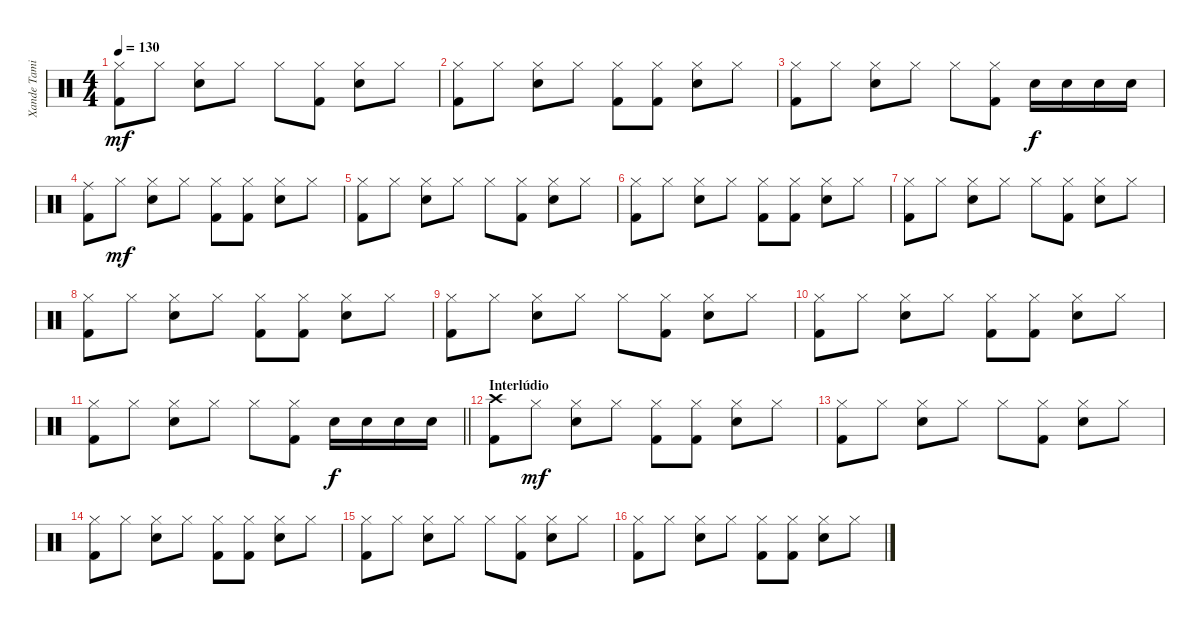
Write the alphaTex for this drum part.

\track ("Xande Tamietti" "Xande Tami") {instrument percussion}
\staff {score}
\articulation defaults
\ts (4 4)
\tempo 130
\clef neutral
\ks c
("Hi-Hat (closed)" "Kick (hit) 2").8{dy mf} "Hi-Hat (closed)".8 ("Hi-Hat (closed)" "Electric Snare (hit)").8 "Hi-Hat (closed)".8 "Hi-Hat (closed)".8 ("Hi-Hat (closed)" "Kick (hit) 2").8 ("Hi-Hat (closed)" "Electric Snare (hit)").8 "Hi-Hat (closed)".8 |
("Hi-Hat (closed)" "Kick (hit) 2").8 "Hi-Hat (closed)".8 ("Hi-Hat (closed)" "Electric Snare (hit)").8 "Hi-Hat (closed)".8 ("Hi-Hat (closed)" "Kick (hit) 2").8 ("Hi-Hat (closed)" "Kick (hit) 2").8 ("Hi-Hat (closed)" "Electric Snare (hit)").8 "Hi-Hat (closed)".8 |
("Hi-Hat (closed)" "Kick (hit) 2").8 "Hi-Hat (closed)".8 ("Hi-Hat (closed)" "Electric Snare (hit)").8 "Hi-Hat (closed)".8 "Hi-Hat (closed)".8 ("Hi-Hat (closed)" "Kick (hit) 2").8 "Electric Snare (hit)".16{dy f} "Electric Snare (hit)".16 "Electric Snare (hit)".16 "Electric Snare (hit)".16 |
("Ride (middle)" "Kick (hit) 2").8 "Hi-Hat (closed)".8{dy mf} ("Hi-Hat (closed)" "Electric Snare (hit)").8 "Hi-Hat (closed)".8 ("Hi-Hat (closed)" "Kick (hit) 2").8 ("Hi-Hat (closed)" "Kick (hit) 2").8 ("Hi-Hat (closed)" "Electric Snare (hit)").8 "Hi-Hat (closed)".8 |
("Hi-Hat (closed)" "Kick (hit) 2").8 "Hi-Hat (closed)".8 ("Hi-Hat (closed)" "Electric Snare (hit)").8 "Hi-Hat (closed)".8 "Hi-Hat (closed)".8 ("Hi-Hat (closed)" "Kick (hit) 2").8 ("Hi-Hat (closed)" "Electric Snare (hit)").8 "Hi-Hat (closed)".8 |
("Hi-Hat (closed)" "Kick (hit) 2").8 "Hi-Hat (closed)".8 ("Hi-Hat (closed)" "Electric Snare (hit)").8 "Hi-Hat (closed)".8 ("Hi-Hat (closed)" "Kick (hit) 2").8 ("Hi-Hat (closed)" "Kick (hit) 2").8 ("Hi-Hat (closed)" "Electric Snare (hit)").8 "Hi-Hat (closed)".8 |
("Hi-Hat (closed)" "Kick (hit) 2").8 "Hi-Hat (closed)".8 ("Hi-Hat (closed)" "Electric Snare (hit)").8 "Hi-Hat (closed)".8 "Hi-Hat (closed)".8 ("Hi-Hat (closed)" "Kick (hit) 2").8 ("Hi-Hat (closed)" "Electric Snare (hit)").8 "Hi-Hat (closed)".8 |
("Hi-Hat (closed)" "Kick (hit) 2").8 "Hi-Hat (closed)".8 ("Hi-Hat (closed)" "Electric Snare (hit)").8 "Hi-Hat (closed)".8 ("Hi-Hat (closed)" "Kick (hit) 2").8 ("Hi-Hat (closed)" "Kick (hit) 2").8 ("Hi-Hat (closed)" "Electric Snare (hit)").8 "Hi-Hat (closed)".8 |
("Hi-Hat (closed)" "Kick (hit) 2").8 "Hi-Hat (closed)".8 ("Hi-Hat (closed)" "Electric Snare (hit)").8 "Hi-Hat (closed)".8 "Hi-Hat (closed)".8 ("Hi-Hat (closed)" "Kick (hit) 2").8 ("Hi-Hat (closed)" "Electric Snare (hit)").8 "Hi-Hat (closed)".8 |
("Hi-Hat (closed)" "Kick (hit) 2").8 "Hi-Hat (closed)".8 ("Hi-Hat (closed)" "Electric Snare (hit)").8 "Hi-Hat (closed)".8 ("Hi-Hat (closed)" "Kick (hit) 2").8 ("Hi-Hat (closed)" "Kick (hit) 2").8 ("Hi-Hat (closed)" "Electric Snare (hit)").8 "Hi-Hat (closed)".8 |
\barLineRight lightlight
("Hi-Hat (closed)" "Kick (hit) 2").8 "Hi-Hat (closed)".8 ("Hi-Hat (closed)" "Electric Snare (hit)").8 "Hi-Hat (closed)".8 "Hi-Hat (closed)".8 ("Hi-Hat (closed)" "Kick (hit) 2").8 "Electric Snare (hit)".16{dy f} "Electric Snare (hit)".16 "Electric Snare (hit)".16 "Electric Snare (hit)".16 |
\section ("" "Interlúdio")
("Crash high (hit)" "Kick (hit) 2").8 "Hi-Hat (closed)".8{dy mf} ("Hi-Hat (closed)" "Electric Snare (hit)").8 "Hi-Hat (closed)".8 ("Hi-Hat (closed)" "Kick (hit) 2").8 ("Hi-Hat (closed)" "Kick (hit) 2").8 ("Hi-Hat (closed)" "Electric Snare (hit)").8 "Hi-Hat (closed)".8 |
("Hi-Hat (closed)" "Kick (hit) 2").8 "Hi-Hat (closed)".8 ("Hi-Hat (closed)" "Electric Snare (hit)").8 "Hi-Hat (closed)".8 "Hi-Hat (closed)".8 ("Hi-Hat (closed)" "Kick (hit) 2").8 ("Hi-Hat (closed)" "Electric Snare (hit)").8 "Hi-Hat (closed)".8 |
("Hi-Hat (closed)" "Kick (hit) 2").8 "Hi-Hat (closed)".8 ("Hi-Hat (closed)" "Electric Snare (hit)").8 "Hi-Hat (closed)".8 ("Hi-Hat (closed)" "Kick (hit) 2").8 ("Hi-Hat (closed)" "Kick (hit) 2").8 ("Hi-Hat (closed)" "Electric Snare (hit)").8 "Hi-Hat (closed)".8 |
("Hi-Hat (closed)" "Kick (hit) 2").8 "Hi-Hat (closed)".8 ("Hi-Hat (closed)" "Electric Snare (hit)").8 "Hi-Hat (closed)".8 "Hi-Hat (closed)".8 ("Hi-Hat (closed)" "Kick (hit) 2").8 ("Hi-Hat (closed)" "Electric Snare (hit)").8 "Hi-Hat (closed)".8 |
("Hi-Hat (closed)" "Kick (hit) 2").8 "Hi-Hat (closed)".8 ("Hi-Hat (closed)" "Electric Snare (hit)").8 "Hi-Hat (closed)".8 ("Hi-Hat (closed)" "Kick (hit) 2").8 ("Hi-Hat (closed)" "Kick (hit) 2").8 ("Hi-Hat (closed)" "Electric Snare (hit)").8 "Hi-Hat (closed)".8
